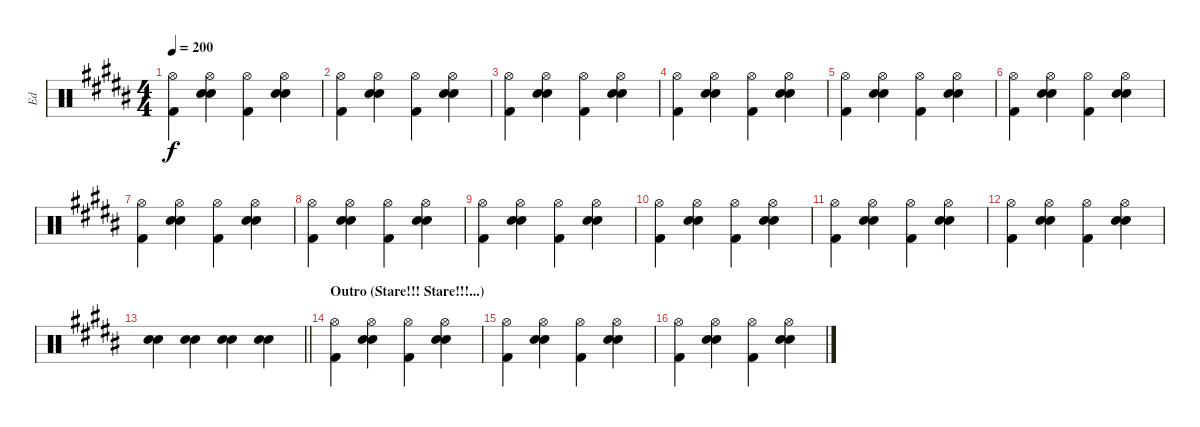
\track ("Ed" "Ed") {instrument percussion bank 127}
\staff {score}
\articulation defaults
\ts (4 4)
\tempo 200
\clef neutral
\ks g#minor
("Hi-Hat (open)" "Kick (hit) 2").4{dy f} ("Hi-Hat (open)" "Electric Snare (hit)" "Electric Snare (hit)").4 ("Hi-Hat (open)" "Kick (hit) 2").4 ("Hi-Hat (open)" "Electric Snare (hit)" "Electric Snare (hit)").4 |
("Hi-Hat (open)" "Kick (hit) 2").4 ("Hi-Hat (open)" "Electric Snare (hit)" "Electric Snare (hit)").4 ("Hi-Hat (open)" "Kick (hit) 2").4 ("Hi-Hat (open)" "Electric Snare (hit)" "Electric Snare (hit)").4 |
("Hi-Hat (open)" "Kick (hit) 2").4 ("Hi-Hat (open)" "Electric Snare (hit)" "Electric Snare (hit)").4 ("Hi-Hat (open)" "Kick (hit) 2").4 ("Hi-Hat (open)" "Electric Snare (hit)" "Electric Snare (hit)").4 |
("Hi-Hat (open)" "Kick (hit) 2").4 ("Hi-Hat (open)" "Electric Snare (hit)" "Electric Snare (hit)").4 ("Hi-Hat (open)" "Kick (hit) 2").4 ("Hi-Hat (open)" "Electric Snare (hit)" "Electric Snare (hit)").4 |
("Hi-Hat (open)" "Kick (hit) 2").4 ("Hi-Hat (open)" "Electric Snare (hit)" "Electric Snare (hit)").4 ("Hi-Hat (open)" "Kick (hit) 2").4 ("Hi-Hat (open)" "Electric Snare (hit)" "Electric Snare (hit)").4 |
("Hi-Hat (open)" "Kick (hit) 2").4 ("Hi-Hat (open)" "Electric Snare (hit)" "Electric Snare (hit)").4 ("Hi-Hat (open)" "Kick (hit) 2").4 ("Hi-Hat (open)" "Electric Snare (hit)" "Electric Snare (hit)").4 |
("Hi-Hat (open)" "Kick (hit) 2").4 ("Hi-Hat (open)" "Electric Snare (hit)" "Electric Snare (hit)").4 ("Hi-Hat (open)" "Kick (hit) 2").4 ("Hi-Hat (open)" "Electric Snare (hit)" "Electric Snare (hit)").4 |
("Hi-Hat (open)" "Kick (hit) 2").4 ("Hi-Hat (open)" "Electric Snare (hit)" "Electric Snare (hit)").4 ("Hi-Hat (open)" "Kick (hit) 2").4 ("Hi-Hat (open)" "Electric Snare (hit)" "Electric Snare (hit)").4 |
("Hi-Hat (open)" "Kick (hit) 2").4 ("Hi-Hat (open)" "Electric Snare (hit)" "Electric Snare (hit)").4 ("Hi-Hat (open)" "Kick (hit) 2").4 ("Hi-Hat (open)" "Electric Snare (hit)" "Electric Snare (hit)").4 |
("Hi-Hat (open)" "Kick (hit) 2").4 ("Hi-Hat (open)" "Electric Snare (hit)" "Electric Snare (hit)").4 ("Hi-Hat (open)" "Kick (hit) 2").4 ("Hi-Hat (open)" "Electric Snare (hit)" "Electric Snare (hit)").4 |
("Hi-Hat (open)" "Kick (hit) 2").4 ("Hi-Hat (open)" "Electric Snare (hit)" "Electric Snare (hit)").4 ("Hi-Hat (open)" "Kick (hit) 2").4 ("Hi-Hat (open)" "Electric Snare (hit)" "Electric Snare (hit)").4 |
("Hi-Hat (open)" "Kick (hit) 2").4 ("Hi-Hat (open)" "Electric Snare (hit)" "Electric Snare (hit)").4 ("Hi-Hat (open)" "Kick (hit) 2").4 ("Hi-Hat (open)" "Electric Snare (hit)" "Electric Snare (hit)").4 |
\barLineRight lightlight
("Electric Snare (hit)" "Electric Snare (hit)").4 ("Electric Snare (hit)" "Electric Snare (hit)").4 ("Electric Snare (hit)" "Electric Snare (hit)").4 ("Electric Snare (hit)" "Electric Snare (hit)").4 |
\section ("" "Outro (Stare!!! Stare!!!...)")
("Hi-Hat (open)" "Kick (hit) 2").4 ("Hi-Hat (open)" "Electric Snare (hit)" "Electric Snare (hit)").4 ("Hi-Hat (open)" "Kick (hit) 2").4 ("Hi-Hat (open)" "Electric Snare (hit)" "Electric Snare (hit)").4 |
("Hi-Hat (open)" "Kick (hit) 2").4 ("Hi-Hat (open)" "Electric Snare (hit)" "Electric Snare (hit)").4 ("Hi-Hat (open)" "Kick (hit) 2").4 ("Hi-Hat (open)" "Electric Snare (hit)" "Electric Snare (hit)").4 |
("Hi-Hat (open)" "Kick (hit) 2").4 ("Hi-Hat (open)" "Electric Snare (hit)" "Electric Snare (hit)").4 ("Hi-Hat (open)" "Kick (hit) 2").4 ("Hi-Hat (open)" "Electric Snare (hit)" "Electric Snare (hit)").4
